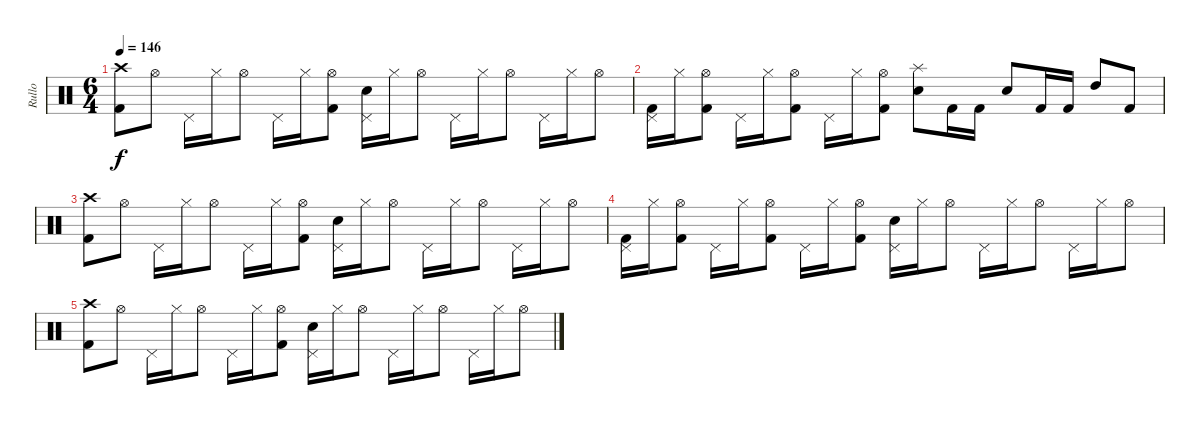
\track ("Rullo" "Rullo") {instrument percussion}
\staff {score}
\articulation defaults
\ts (6 4)
\tempo 146
\clef neutral
\ks c
("Crash high (hit)" "Kick (hit) 2").8{dy f} "Hi-Hat (open)".8 "Pedal Hi-Hat (hit)".16 "Hi-Hat (closed)".16 "Hi-Hat (open)".8 "Pedal Hi-Hat (hit)".16 "Hi-Hat (closed)".16 ("Hi-Hat (open)" "Kick (hit) 2").8 ("Pedal Hi-Hat (hit)" "Electric Snare (hit)").16 "Hi-Hat (closed)".16 "Hi-Hat (open)".8 "Pedal Hi-Hat (hit)".16 "Hi-Hat (closed)".16 "Hi-Hat (open)".8 "Pedal Hi-Hat (hit)".16 "Hi-Hat (closed)".16 "Hi-Hat (open)".8 |
("Pedal Hi-Hat (hit)" "Kick (hit) 2").16{volume 4} "Hi-Hat (closed)".16 ("Hi-Hat (open)" "Kick (hit) 2").8 "Pedal Hi-Hat (hit)".16 "Hi-Hat (closed)".16 ("Hi-Hat (open)" "Kick (hit) 2").8 "Pedal Hi-Hat (hit)".16 "Hi-Hat (closed)".16 ("Hi-Hat (open)" "Kick (hit) 2").8 ("Splash (hit)" "Electric Snare (hit)").8 "Kick (hit) 2".16 "Kick (hit) 2".16 "Electric Snare (hit)".8 "Kick (hit) 2".16 "Kick (hit) 2".16 "High Tom (hit)".8 "Kick (hit) 2".8 |
("Crash high (hit)" "Kick (hit) 2").8 "Hi-Hat (open)".8 "Pedal Hi-Hat (hit)".16 "Hi-Hat (closed)".16 "Hi-Hat (open)".8 "Pedal Hi-Hat (hit)".16 "Hi-Hat (closed)".16 ("Hi-Hat (open)" "Kick (hit) 2").8 ("Pedal Hi-Hat (hit)" "Electric Snare (hit)").16 "Hi-Hat (closed)".16 "Hi-Hat (open)".8 "Pedal Hi-Hat (hit)".16 "Hi-Hat (closed)".16 "Hi-Hat (open)".8 "Pedal Hi-Hat (hit)".16 "Hi-Hat (closed)".16 "Hi-Hat (open)".8 |
("Pedal Hi-Hat (hit)" "Kick (hit) 2").16 "Hi-Hat (closed)".16 ("Hi-Hat (open)" "Kick (hit) 2").8{volume 0} "Pedal Hi-Hat (hit)".16 "Hi-Hat (closed)".16 ("Hi-Hat (open)" "Kick (hit) 2").8 "Pedal Hi-Hat (hit)".16 "Hi-Hat (closed)".16 ("Hi-Hat (open)" "Kick (hit) 2").8 ("Pedal Hi-Hat (hit)" "Electric Snare (hit)").16 "Hi-Hat (closed)".16 "Hi-Hat (open)".8 "Pedal Hi-Hat (hit)".16 "Hi-Hat (closed)".16 "Hi-Hat (open)".8 "Pedal Hi-Hat (hit)".16 "Hi-Hat (closed)".16 "Hi-Hat (open)".8 |
("Crash high (hit)" "Kick (hit) 2").8 "Hi-Hat (open)".8 "Pedal Hi-Hat (hit)".16 "Hi-Hat (closed)".16 "Hi-Hat (open)".8 "Pedal Hi-Hat (hit)".16 "Hi-Hat (closed)".16 ("Hi-Hat (open)" "Kick (hit) 2").8 ("Pedal Hi-Hat (hit)" "Electric Snare (hit)").16 "Hi-Hat (closed)".16 "Hi-Hat (open)".8 "Pedal Hi-Hat (hit)".16 "Hi-Hat (closed)".16 "Hi-Hat (open)".8 "Pedal Hi-Hat (hit)".16 "Hi-Hat (closed)".16 "Hi-Hat (open)".8
